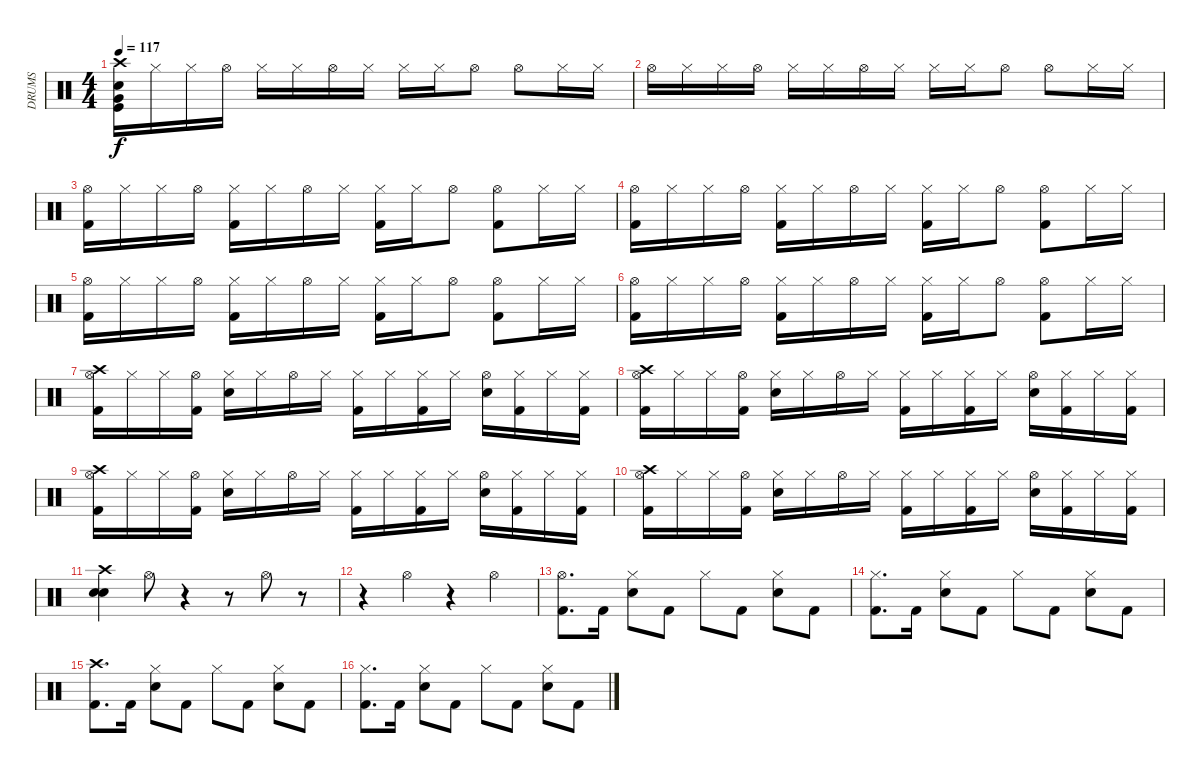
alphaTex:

\track ("DRUMS" "DRUMS") {instrument percussion}
\staff {score}
\articulation defaults
\ts (4 4)
\tempo 117
\clef neutral
\ks c
("Electric Snare (hit)" "Crash high (hit)" "Very Low Tom (hit)" "Kick (hit)").16{dy f} "Hi-Hat (closed)".16 "Hi-Hat (closed)".16 "Hi-Hat (open)".16 "Hi-Hat (closed)".16 "Hi-Hat (closed)".16 "Hi-Hat (open)".16 "Hi-Hat (closed)".16 "Hi-Hat (closed)".16 "Hi-Hat (closed)".16 "Hi-Hat (open)".8 "Hi-Hat (open)".8 "Hi-Hat (closed)".16 "Hi-Hat (closed)".16 |
"Hi-Hat (open)".16 "Hi-Hat (closed)".16 "Hi-Hat (closed)".16 "Hi-Hat (open)".16 "Hi-Hat (closed)".16 "Hi-Hat (closed)".16 "Hi-Hat (open)".16 "Hi-Hat (closed)".16 "Hi-Hat (closed)".16 "Hi-Hat (closed)".16 "Hi-Hat (open)".8 "Hi-Hat (open)".8 "Hi-Hat (closed)".16 "Hi-Hat (closed)".16 |
("Kick (hit) 2" "Hi-Hat (open)").16 "Hi-Hat (closed)".16 "Hi-Hat (closed)".16 "Hi-Hat (open)".16 ("Kick (hit) 2" "Hi-Hat (closed)").16 "Hi-Hat (closed)".16 "Hi-Hat (open)".16 "Hi-Hat (closed)".16 ("Kick (hit) 2" "Hi-Hat (closed)").16 "Hi-Hat (closed)".16 "Hi-Hat (open)".8 ("Kick (hit) 2" "Hi-Hat (open)").8 "Hi-Hat (closed)".16 "Hi-Hat (closed)".16 |
("Kick (hit) 2" "Hi-Hat (open)").16 "Hi-Hat (closed)".16 "Hi-Hat (closed)".16 "Hi-Hat (open)".16 ("Kick (hit) 2" "Hi-Hat (closed)").16 "Hi-Hat (closed)".16 "Hi-Hat (open)".16 "Hi-Hat (closed)".16 ("Kick (hit) 2" "Hi-Hat (closed)").16 "Hi-Hat (closed)".16 "Hi-Hat (open)".8 ("Kick (hit) 2" "Hi-Hat (open)").8 "Hi-Hat (closed)".16 "Hi-Hat (closed)".16 |
("Kick (hit) 2" "Hi-Hat (open)").16 "Hi-Hat (closed)".16 "Hi-Hat (closed)".16 "Hi-Hat (open)".16 ("Kick (hit) 2" "Hi-Hat (closed)").16 "Hi-Hat (closed)".16 "Hi-Hat (open)".16 "Hi-Hat (closed)".16 ("Kick (hit) 2" "Hi-Hat (closed)").16 "Hi-Hat (closed)".16 "Hi-Hat (open)".8 ("Kick (hit) 2" "Hi-Hat (open)").8 "Hi-Hat (closed)".16 "Hi-Hat (closed)".16 |
("Kick (hit) 2" "Hi-Hat (open)").16 "Hi-Hat (closed)".16 "Hi-Hat (closed)".16 "Hi-Hat (open)".16 ("Kick (hit) 2" "Hi-Hat (closed)").16 "Hi-Hat (closed)".16 "Hi-Hat (open)".16 "Hi-Hat (closed)".16 ("Kick (hit) 2" "Hi-Hat (closed)").16 "Hi-Hat (closed)".16 "Hi-Hat (open)".8 ("Kick (hit) 2" "Hi-Hat (open)").8 "Hi-Hat (closed)".16 "Hi-Hat (closed)".16 |
("Kick (hit) 2" "Hi-Hat (open)" "Crash high (hit)").16 "Hi-Hat (closed)".16 "Hi-Hat (closed)".16 ("Kick (hit) 2" "Hi-Hat (open)").16 ("Electric Snare (hit)" "Hi-Hat (closed)").16 "Hi-Hat (closed)".16 "Hi-Hat (open)".16 "Hi-Hat (closed)".16 ("Kick (hit) 2" "Hi-Hat (closed)").16 "Hi-Hat (closed)".16 ("Kick (hit) 2" "Hi-Hat (closed)").16 "Hi-Hat (closed)".16 ("Electric Snare (hit)" "Hi-Hat (open)").16 ("Kick (hit) 2" "Hi-Hat (closed)").16 "Hi-Hat (closed)".16 ("Kick (hit) 2" "Hi-Hat (closed)").16 |
("Kick (hit) 2" "Hi-Hat (open)" "Crash high (hit)").16 "Hi-Hat (closed)".16 "Hi-Hat (closed)".16 ("Kick (hit) 2" "Hi-Hat (open)").16 ("Electric Snare (hit)" "Hi-Hat (closed)").16 "Hi-Hat (closed)".16 "Hi-Hat (open)".16 "Hi-Hat (closed)".16 ("Kick (hit) 2" "Hi-Hat (closed)").16 "Hi-Hat (closed)".16 ("Kick (hit) 2" "Hi-Hat (closed)").16 "Hi-Hat (closed)".16 ("Electric Snare (hit)" "Hi-Hat (open)").16 ("Kick (hit) 2" "Hi-Hat (closed)").16 "Hi-Hat (closed)".16 ("Kick (hit) 2" "Hi-Hat (closed)").16 |
("Kick (hit) 2" "Hi-Hat (open)" "Crash high (hit)").16 "Hi-Hat (closed)".16 "Hi-Hat (closed)".16 ("Kick (hit) 2" "Hi-Hat (open)").16 ("Electric Snare (hit)" "Hi-Hat (closed)").16 "Hi-Hat (closed)".16 "Hi-Hat (open)".16 "Hi-Hat (closed)".16 ("Kick (hit) 2" "Hi-Hat (closed)").16 "Hi-Hat (closed)".16 ("Kick (hit) 2" "Hi-Hat (closed)").16 "Hi-Hat (closed)".16 ("Electric Snare (hit)" "Hi-Hat (open)").16 ("Kick (hit) 2" "Hi-Hat (closed)").16 "Hi-Hat (closed)".16 ("Kick (hit) 2" "Hi-Hat (closed)").16 |
("Kick (hit) 2" "Hi-Hat (open)" "Crash high (hit)").16 "Hi-Hat (closed)".16 "Hi-Hat (closed)".16 ("Kick (hit) 2" "Hi-Hat (open)").16 ("Electric Snare (hit)" "Hi-Hat (closed)").16 "Hi-Hat (closed)".16 "Hi-Hat (open)".16 "Hi-Hat (closed)".16 ("Kick (hit) 2" "Hi-Hat (closed)").16 "Hi-Hat (closed)".16 ("Kick (hit) 2" "Hi-Hat (closed)").16 "Hi-Hat (closed)".16 ("Electric Snare (hit)" "Hi-Hat (open)").16 ("Kick (hit) 2" "Hi-Hat (closed)").16 "Hi-Hat (closed)".16 ("Kick (hit) 2" "Hi-Hat (closed)").16 |
("Snare (hit) 2" "Electric Snare (hit)" "Crash high (hit)").4 "Hi-Hat (open)".8 r.4 r.8 "Hi-Hat (open)".8 r.8 |
r.4 "Hi-Hat (open)".4 r.4 "Hi-Hat (open)".4 |
("Kick (hit) 2" "Hi-Hat (open)").8{d} "Kick (hit) 2".16 ("Electric Snare (hit)" "Hi-Hat (closed)").8 "Kick (hit) 2".8 "Hi-Hat (closed)".8 "Kick (hit) 2".8 ("Electric Snare (hit)" "Hi-Hat (closed)").8 "Kick (hit) 2".8 |
("Kick (hit) 2" "Hi-Hat (closed)").8{d} "Kick (hit) 2".16 ("Electric Snare (hit)" "Hi-Hat (closed)").8 "Kick (hit) 2".8 "Hi-Hat (closed)".8 "Kick (hit) 2".8 ("Electric Snare (hit)" "Hi-Hat (closed)").8 "Kick (hit) 2".8 |
("Kick (hit) 2" "Crash high (hit)").8{d} "Kick (hit) 2".16 ("Electric Snare (hit)" "Hi-Hat (closed)").8 "Kick (hit) 2".8 "Hi-Hat (closed)".8 "Kick (hit) 2".8 ("Electric Snare (hit)" "Hi-Hat (closed)").8 "Kick (hit) 2".8 |
("Kick (hit) 2" "Hi-Hat (closed)").8{d} "Kick (hit) 2".16 ("Electric Snare (hit)" "Hi-Hat (closed)").8 "Kick (hit) 2".8 "Hi-Hat (closed)".8 "Kick (hit) 2".8 ("Electric Snare (hit)" "Hi-Hat (closed)").8 "Kick (hit) 2".8
